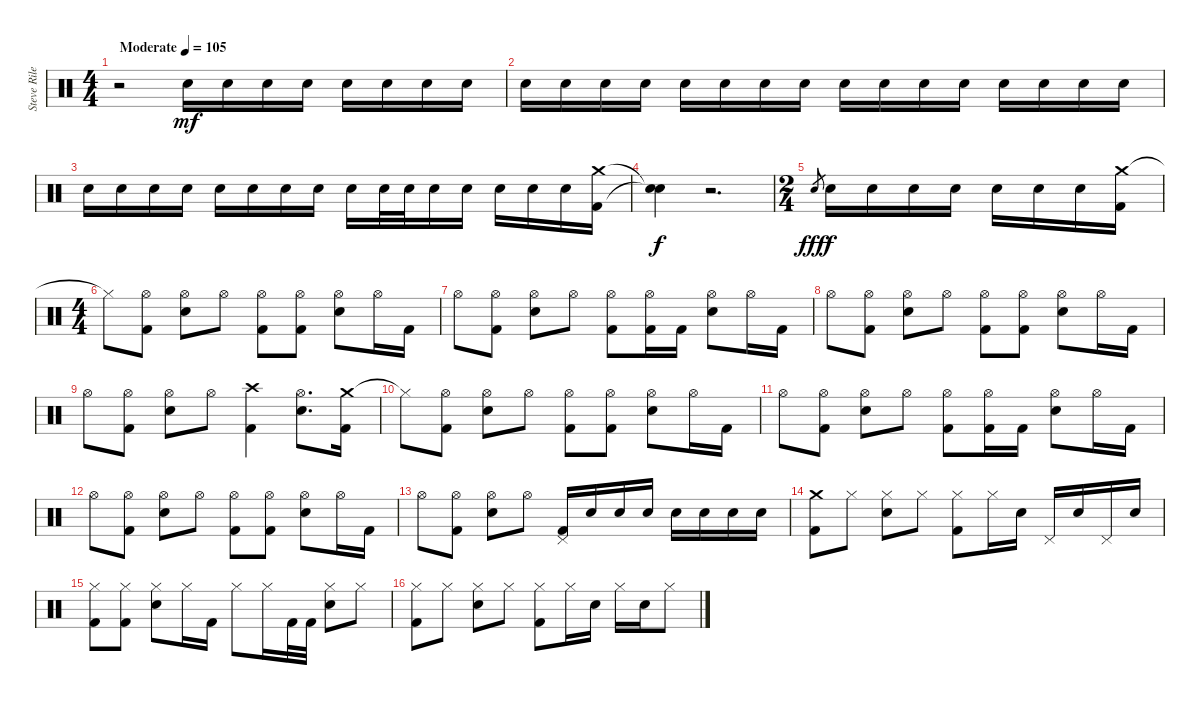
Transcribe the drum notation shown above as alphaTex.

\track ("Steve Riley" "Steve Rile") {instrument percussion}
\staff {score}
\articulation defaults
\ts (4 4)
\tempo (105 "Moderate")
\clef neutral
\ks c
r.2{dy mf} "Snare (hit) 2".16{volume 16} "Snare (hit) 2".16 "Snare (hit) 2".16 "Snare (hit) 2".16 "Snare (hit) 2".16 "Snare (hit) 2".16 "Snare (hit) 2".16 "Snare (hit) 2".16 |
"Snare (hit) 2".16 "Snare (hit) 2".16 "Snare (hit) 2".16 "Snare (hit) 2".16 "Snare (hit) 2".16 "Snare (hit) 2".16 "Snare (hit) 2".16 "Snare (hit) 2".16 "Snare (hit) 2".16 "Snare (hit) 2".16 "Snare (hit) 2".16 "Snare (hit) 2".16 "Snare (hit) 2".16 "Snare (hit) 2".16 "Snare (hit) 2".16 "Snare (hit) 2".16 |
"Snare (hit) 2".16 "Snare (hit) 2".16 "Snare (hit) 2".16 "Snare (hit) 2".16 "Snare (hit) 2".16 "Snare (hit) 2".16 "Snare (hit) 2".16 "Snare (hit) 2".16 "Snare (hit) 2".16 "Snare (hit) 2".32 "Snare (hit) 2".32 "Snare (hit) 2".16 "Snare (hit) 2".16 "Snare (hit) 2".16 "Snare (hit) 2".16 "Snare (hit) 2".16 ("Crash medium (hit)" "Kick (hit) 2").16 |
("Snare (hit)"{t} "Snare (hit)"{t}).4{dy f} r.2{d} |
\ts (2 4)
"Snare (hit) 2".8{gr dy fff} "Snare (hit) 2".16{dy f} "Snare (hit) 2".16 "Snare (hit) 2".16 "Snare (hit) 2".16 "Snare (hit) 2".16 "Snare (hit) 2".16 "Snare (hit) 2".16 ("Crash medium (hit)" "Kick (hit) 2").16 |
\ts (4 4)
"Hi-Hat (closed)"{t}.8 ("Hi-Hat (open)" "Kick (hit) 2").8 ("Hi-Hat (open)" "Snare (hit) 2").8 "Hi-Hat (open)".8 ("Hi-Hat (open)" "Kick (hit) 2").8 ("Hi-Hat (open)" "Kick (hit) 2").8 ("Hi-Hat (open)" "Snare (hit) 2").8 "Hi-Hat (open)".16 "Kick (hit) 2".16 |
"Hi-Hat (open)".8 ("Hi-Hat (open)" "Kick (hit) 2").8 ("Hi-Hat (open)" "Snare (hit) 2").8 "Hi-Hat (open)".8 ("Hi-Hat (open)" "Kick (hit) 2").8 ("Hi-Hat (open)" "Kick (hit) 2").16 "Kick (hit) 2".16 ("Hi-Hat (open)" "Snare (hit) 2").8 "Hi-Hat (open)".16 "Kick (hit) 2".16 |
"Hi-Hat (open)".8 ("Hi-Hat (open)" "Kick (hit) 2").8 ("Hi-Hat (open)" "Snare (hit) 2").8 "Hi-Hat (open)".8 ("Hi-Hat (open)" "Kick (hit) 2").8 ("Hi-Hat (open)" "Kick (hit) 2").8 ("Hi-Hat (open)" "Snare (hit) 2").8 "Hi-Hat (open)".16 "Kick (hit) 2".16 |
"Hi-Hat (open)".8 ("Hi-Hat (open)" "Kick (hit) 2").8 ("Hi-Hat (open)" "Snare (hit) 2").8 "Hi-Hat (open)".8 ("Crash high (hit)" "Kick (hit) 2").4 ("Hi-Hat (open)" "Snare (hit) 2").8{d} ("Crash medium (hit)" "Kick (hit) 2").16 |
"Hi-Hat (closed)"{t}.8 ("Hi-Hat (open)" "Kick (hit) 2").8 ("Hi-Hat (open)" "Snare (hit) 2").8 "Hi-Hat (open)".8 ("Hi-Hat (open)" "Kick (hit) 2").8 ("Hi-Hat (open)" "Kick (hit) 2").8 ("Hi-Hat (open)" "Snare (hit) 2").8 "Hi-Hat (open)".16 "Kick (hit) 2".16 |
"Hi-Hat (open)".8 ("Hi-Hat (open)" "Kick (hit) 2").8 ("Hi-Hat (open)" "Snare (hit) 2").8 "Hi-Hat (open)".8 ("Hi-Hat (open)" "Kick (hit) 2").8 ("Hi-Hat (open)" "Kick (hit) 2").16 "Kick (hit) 2".16 ("Hi-Hat (open)" "Snare (hit) 2").8 "Hi-Hat (open)".16 "Kick (hit) 2".16 |
"Hi-Hat (open)".8 ("Hi-Hat (open)" "Kick (hit) 2").8 ("Hi-Hat (open)" "Snare (hit) 2").8 "Hi-Hat (open)".8 ("Hi-Hat (open)" "Kick (hit) 2").8 ("Hi-Hat (open)" "Kick (hit) 2").8 ("Hi-Hat (open)" "Snare (hit) 2").8 "Hi-Hat (open)".16 "Kick (hit) 2".16 |
"Hi-Hat (open)".8 ("Hi-Hat (open)" "Kick (hit) 2").8 ("Hi-Hat (open)" "Snare (hit) 2").8 "Hi-Hat (open)".8 ("Pedal Hi-Hat (hit)" "Kick (hit) 2").16 "Snare (hit) 2".16 "Snare (hit) 2".16 "Snare (hit) 2".16 "Snare (hit) 2".16 "Snare (hit) 2".16 "Snare (hit) 2".16 "Snare (hit) 2".16 |
("Crash medium (hit)" "Kick (hit) 2").8 "Hi-Hat (closed)".8 ("Hi-Hat (closed)" "Snare (hit) 2").8 "Hi-Hat (closed)".8 ("Hi-Hat (closed)" "Kick (hit) 2").8 "Hi-Hat (closed)".16 "Snare (hit) 2".16 "Pedal Hi-Hat (hit)".16 "Snare (hit) 2".16 "Pedal Hi-Hat (hit)".16 "Snare (hit) 2".16 |
("Hi-Hat (closed)" "Kick (hit) 2").8 ("Hi-Hat (closed)" "Kick (hit) 2").8 ("Hi-Hat (closed)" "Snare (hit) 2").8 "Hi-Hat (closed)".16 "Kick (hit) 2".16 "Hi-Hat (closed)".8 "Hi-Hat (closed)".16 "Kick (hit) 2".32 "Kick (hit) 2".32 ("Hi-Hat (closed)" "Snare (hit) 2").8 "Hi-Hat (closed)".8 |
("Hi-Hat (closed)" "Kick (hit) 2").8 "Hi-Hat (closed)".8 ("Hi-Hat (closed)" "Snare (hit) 2").8 "Hi-Hat (closed)".8 ("Hi-Hat (closed)" "Kick (hit) 2").8 "Hi-Hat (closed)".16 "Snare (hit) 2".16 "Hi-Hat (closed)".16 "Snare (hit) 2".16 "Hi-Hat (closed)".8
